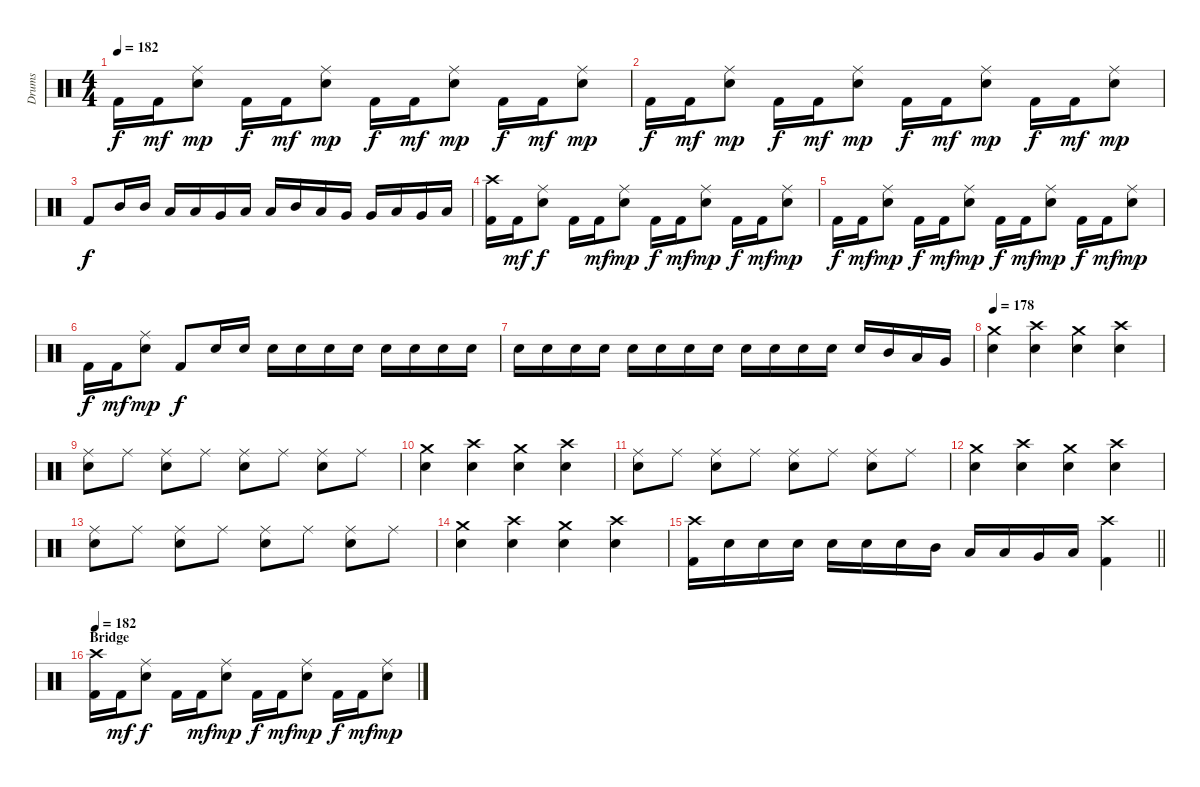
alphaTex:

\track ("Drums" "Drums") {instrument percussion}
\staff {score}
\articulation defaults
\ts (4 4)
\tempo 182
\clef neutral
\ks c "Kick (hit) 2".16{dy f} "Kick (hit) 2".16{dy mf}
("Ride (middle)" "Snare (hit) 2").8{dy mp} "Kick (hit) 2".16{dy f} "Kick (hit) 2".16{dy mf} ("Ride (middle)" "Snare (hit) 2").8{dy mp} "Kick (hit) 2".16{dy f} "Kick (hit) 2".16{dy mf} ("Ride (middle)" "Snare (hit) 2").8{dy mp} "Kick (hit) 2".16{dy f} "Kick (hit) 2".16{dy mf} ("Ride (middle)" "Snare (hit) 2").8{dy mp} |
"Kick (hit) 2".16{dy f} "Kick (hit) 2".16{dy mf} ("Ride (middle)" "Snare (hit) 2").8{dy mp} "Kick (hit) 2".16{dy f} "Kick (hit) 2".16{dy mf} ("Ride (middle)" "Snare (hit) 2").8{dy mp} "Kick (hit) 2".16{dy f} "Kick (hit) 2".16{dy mf} ("Ride (middle)" "Snare (hit) 2").8{dy mp} "Kick (hit) 2".16{dy f} "Kick (hit) 2".16{dy mf} ("Ride (middle)" "Snare (hit) 2").8{dy mp} |
"Kick (hit) 2".8{dy f} "Mid Tom (hit)".16 "Mid Tom (hit)".16 "Low Tom (hit)".16 "Low Tom (hit)".16 "Very Low Tom (hit)".16 "Low Tom (hit)".16 "Low Tom (hit)".16 "Mid Tom (hit)".16 "Low Tom (hit)".16 "Very Low Tom (hit)".16 "Very Low Tom (hit)".16 "Low Tom (hit)".16 "Very Low Tom (hit)".16 "Low Floor Tom (hit)".16 |
("Crash high (hit)" "Kick (hit) 2").16 "Kick (hit) 2".16{dy mf} ("Ride (middle)" "Snare (hit) 2").8{dy f} "Kick (hit) 2".16 "Kick (hit) 2".16{dy mf} ("Ride (middle)" "Snare (hit) 2").8{dy mp} "Kick (hit) 2".16{dy f} "Kick (hit) 2".16{dy mf} ("Ride (middle)" "Snare (hit) 2").8{dy mp} "Kick (hit) 2".16{dy f} "Kick (hit) 2".16{dy mf} ("Ride (middle)" "Snare (hit) 2").8{dy mp} |
"Kick (hit) 2".16{dy f} "Kick (hit) 2".16{dy mf} ("Ride (middle)" "Snare (hit) 2").8{dy mp} "Kick (hit) 2".16{dy f} "Kick (hit) 2".16{dy mf} ("Ride (middle)" "Snare (hit) 2").8{dy mp} "Kick (hit) 2".16{dy f} "Kick (hit) 2".16{dy mf} ("Ride (middle)" "Snare (hit) 2").8{dy mp} "Kick (hit) 2".16{dy f} "Kick (hit) 2".16{dy mf} ("Ride (middle)" "Snare (hit) 2").8{dy mp} |
"Kick (hit) 2".16{dy f} "Kick (hit) 2".16{dy mf} ("Ride (middle)" "Snare (hit) 2").8{dy mp} "Kick (hit) 2".8{dy f} "Snare (hit) 2".16 "Snare (hit) 2".16 "Snare (hit) 2".16 "Snare (hit) 2".16 "Snare (hit) 2".16 "Snare (hit) 2".16 "Snare (hit) 2".16 "Snare (hit) 2".16 "Snare (hit) 2".16 "Snare (hit) 2".16 |
\ks aminor "Snare (hit) 2".16 "Snare (hit) 2".16 "Snare (hit) 2".16 "Snare (hit) 2".16 "Snare (hit) 2".16 "Snare (hit) 2".16 "Snare (hit) 2".16 "Snare (hit) 2".16 "Snare (hit) 2".16 "Snare (hit) 2".16 "Snare (hit) 2".16 "Snare (hit) 2".16 "Snare (hit) 2".16 "Mid Tom (hit)".16 "Low Tom (hit)".16 "Very Low Tom (hit)".16
|
\tempo 178
("Crash medium (hit)" "Snare (hit) 2").4 ("Crash high (hit)" "Snare (hit) 2").4 ("Crash medium (hit)" "Snare (hit) 2").4 ("Crash high (hit)" "Snare (hit) 2").4 |
("Ride (middle)" "Snare (hit) 2").8 "Ride (middle)".8 ("Ride (middle)" "Snare (hit) 2").8 "Ride (middle)".8 ("Ride (middle)" "Snare (hit) 2").8 "Ride (middle)".8 ("Ride (middle)" "Snare (hit) 2").8 "Ride (middle)".8 |
("Crash medium (hit)" "Snare (hit) 2").4 ("Crash high (hit)" "Snare (hit) 2").4 ("Crash medium (hit)" "Snare (hit) 2").4 ("Crash high (hit)" "Snare (hit) 2").4 |
("Ride (middle)" "Snare (hit) 2").8 "Ride (middle)".8 ("Ride (middle)" "Snare (hit) 2").8 "Ride (middle)".8 ("Ride (middle)" "Snare (hit) 2").8 "Ride (middle)".8 ("Ride (middle)" "Snare (hit) 2").8 "Ride (middle)".8 |
("Crash medium (hit)" "Snare (hit) 2").4 ("Crash high (hit)" "Snare (hit) 2").4 ("Crash medium (hit)" "Snare (hit) 2").4 ("Crash high (hit)" "Snare (hit) 2").4 |
("Ride (middle)" "Snare (hit) 2").8 "Ride (middle)".8 ("Ride (middle)" "Snare (hit) 2").8 "Ride (middle)".8 ("Ride (middle)" "Snare (hit) 2").8 "Ride (middle)".8 ("Ride (middle)" "Snare (hit) 2").8 "Ride (middle)".8 |
("Crash medium (hit)" "Snare (hit) 2").4 ("Crash high (hit)" "Snare (hit) 2").4 ("Crash medium (hit)" "Snare (hit) 2").4 ("Crash high (hit)" "Snare (hit) 2").4 |
\barLineRight lightlight
("Crash high (hit)" "Kick (hit) 2").16 "Snare (hit) 2".16 "Snare (hit) 2".16 "Snare (hit) 2".16 "Snare (hit) 2".16 "Snare (hit) 2".16 "Snare (hit) 2".16 "Mid Tom (hit)".16 "Low Tom (hit)".16 "Low Tom (hit)".16 "Very Low Tom (hit)".16 "Low Floor Tom (hit)".16 ("Crash high (hit)" "Kick (hit) 2").4 |
\section ("" "Bridge")
\tempo 182
("Crash high (hit)" "Kick (hit) 2").16 "Kick (hit) 2".16{dy mf} ("Ride (middle)" "Snare (hit) 2").8{dy f} "Kick (hit) 2".16 "Kick (hit) 2".16{dy mf} ("Ride (middle)" "Snare (hit) 2").8{dy mp} "Kick (hit) 2".16{dy f} "Kick (hit) 2".16{dy mf} ("Ride (middle)" "Snare (hit) 2").8{dy mp} "Kick (hit) 2".16{dy f} "Kick (hit) 2".16{dy mf} ("Ride (middle)" "Snare (hit) 2").8{dy mp}
